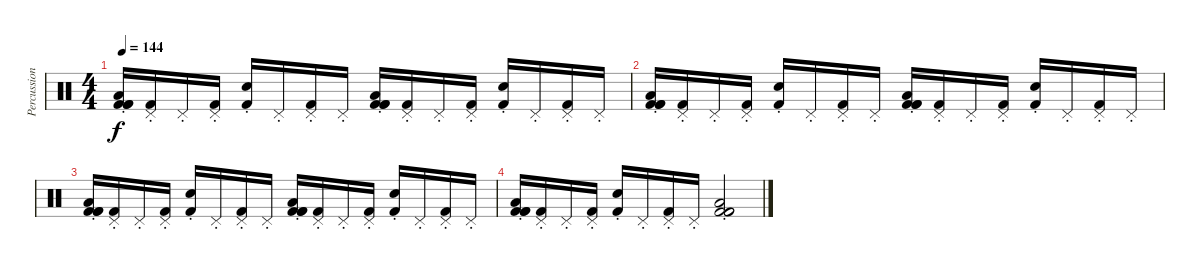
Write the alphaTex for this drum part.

\track ("Percussion" "Percussion") {instrument percussion}
\staff {score}
\articulation defaults
\ts (4 4)
\tempo 144
\clef neutral
\ks c
("Kick (hit) 2" "Kick (hit) 2" "Kick (hit) 2" "Low Tom (hit)"{st}).16{dy f} ("Pedal Hi-Hat (hit)"{st} "Kick (hit) 2"{st}).16 "Pedal Hi-Hat (hit)"{st}.16 ("Pedal Hi-Hat (hit)"{st} "Kick (hit) 2"{st}).16 ("Electric Snare (hit)"{st} "Kick (hit) 2"{st}).16 "Pedal Hi-Hat (hit)"{st}.16 ("Pedal Hi-Hat (hit)"{st} "Kick (hit) 2"{st}).16 "Pedal Hi-Hat (hit)"{st}.16 ("Kick (hit) 2" "Kick (hit) 2" "Kick (hit) 2" "Low Tom (hit)"{st}).16 ("Pedal Hi-Hat (hit)"{st} "Kick (hit) 2"{st}).16 "Pedal Hi-Hat (hit)"{st}.16 ("Pedal Hi-Hat (hit)"{st} "Kick (hit) 2"{st}).16 ("Electric Snare (hit)"{st} "Kick (hit) 2"{st}).16 "Pedal Hi-Hat (hit)"{st}.16 ("Pedal Hi-Hat (hit)"{st} "Kick (hit) 2"{st}).16 "Pedal Hi-Hat (hit)"{st}.16 |
("Kick (hit) 2" "Kick (hit) 2" "Kick (hit) 2" "Low Tom (hit)"{st}).16 ("Pedal Hi-Hat (hit)"{st} "Kick (hit) 2"{st}).16 "Pedal Hi-Hat (hit)"{st}.16 ("Pedal Hi-Hat (hit)"{st} "Kick (hit) 2"{st}).16 ("Electric Snare (hit)"{st} "Kick (hit) 2"{st}).16 "Pedal Hi-Hat (hit)"{st}.16 ("Pedal Hi-Hat (hit)"{st} "Kick (hit) 2"{st}).16 "Pedal Hi-Hat (hit)"{st}.16 ("Kick (hit) 2" "Kick (hit) 2" "Kick (hit) 2" "Low Tom (hit)"{st}).16 ("Pedal Hi-Hat (hit)"{st} "Kick (hit) 2"{st}).16 "Pedal Hi-Hat (hit)"{st}.16 ("Pedal Hi-Hat (hit)"{st} "Kick (hit) 2"{st}).16 ("Electric Snare (hit)"{st} "Kick (hit) 2"{st}).16 "Pedal Hi-Hat (hit)"{st}.16 ("Pedal Hi-Hat (hit)"{st} "Kick (hit) 2"{st}).16 "Pedal Hi-Hat (hit)"{st}.16 |
("Kick (hit) 2" "Kick (hit) 2" "Kick (hit) 2" "Low Tom (hit)"{st}).16 ("Pedal Hi-Hat (hit)"{st} "Kick (hit) 2"{st}).16 "Pedal Hi-Hat (hit)"{st}.16 ("Pedal Hi-Hat (hit)"{st} "Kick (hit) 2"{st}).16 ("Electric Snare (hit)"{st} "Kick (hit) 2"{st}).16 "Pedal Hi-Hat (hit)"{st}.16 ("Pedal Hi-Hat (hit)"{st} "Kick (hit) 2"{st}).16 "Pedal Hi-Hat (hit)"{st}.16 ("Kick (hit) 2" "Kick (hit) 2" "Kick (hit) 2" "Low Tom (hit)"{st}).16 ("Pedal Hi-Hat (hit)"{st} "Kick (hit) 2"{st}).16 "Pedal Hi-Hat (hit)"{st}.16 ("Pedal Hi-Hat (hit)"{st} "Kick (hit) 2"{st}).16 ("Electric Snare (hit)"{st} "Kick (hit) 2"{st}).16 "Pedal Hi-Hat (hit)"{st}.16 ("Pedal Hi-Hat (hit)"{st} "Kick (hit) 2"{st}).16 "Pedal Hi-Hat (hit)"{st}.16 |
("Kick (hit) 2" "Kick (hit) 2" "Kick (hit) 2" "Low Tom (hit)"{st}).16 ("Pedal Hi-Hat (hit)"{st} "Kick (hit) 2"{st}).16 "Pedal Hi-Hat (hit)"{st}.16 ("Pedal Hi-Hat (hit)"{st} "Kick (hit) 2"{st}).16 ("Electric Snare (hit)"{st} "Kick (hit) 2"{st}).16 "Pedal Hi-Hat (hit)"{st}.16 ("Pedal Hi-Hat (hit)"{st} "Kick (hit) 2"{st}).16 "Pedal Hi-Hat (hit)"{st}.16 ("Kick (hit) 2" "Kick (hit) 2" "Kick (hit) 2" "Low Tom (hit)"{st}).2
